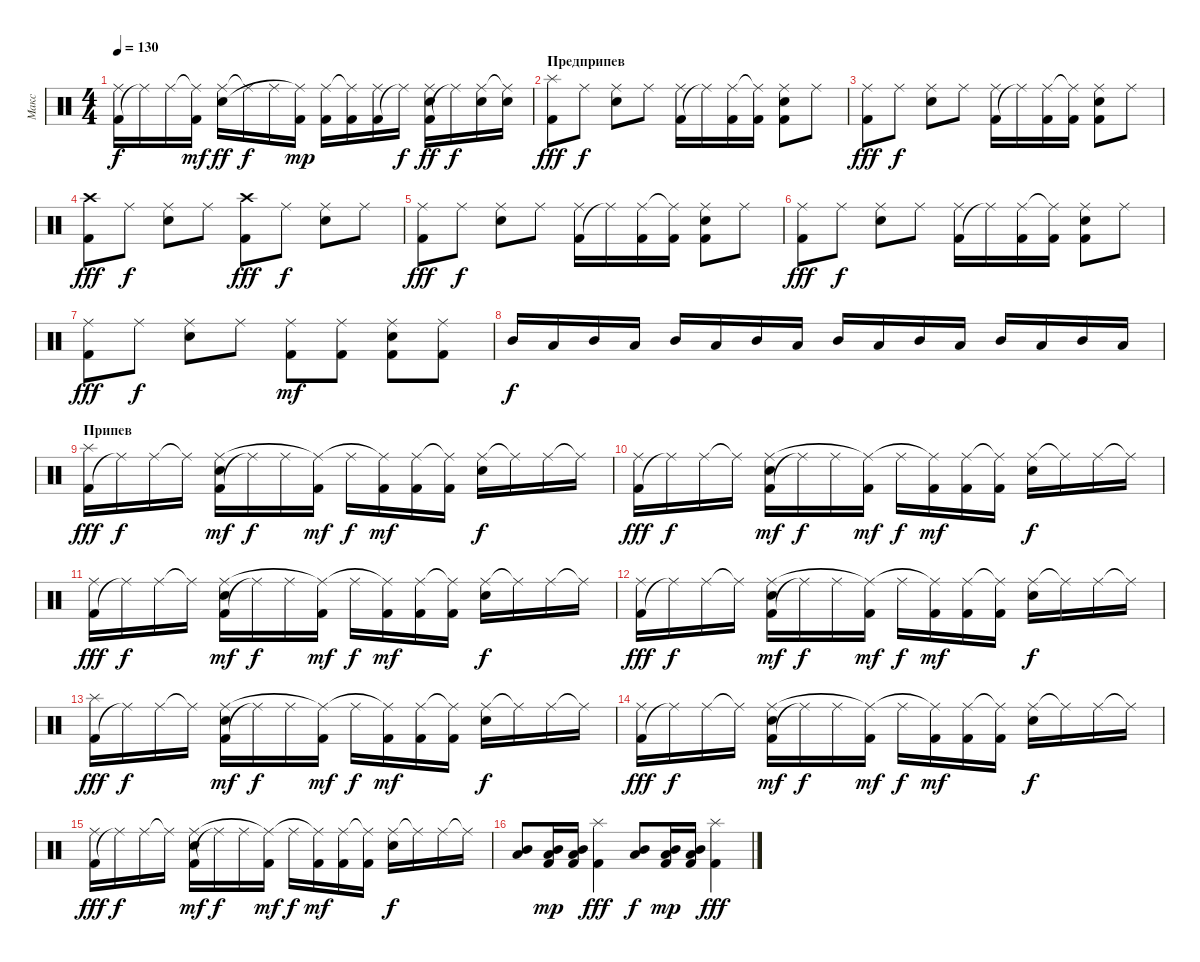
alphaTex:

\track ("Макс" "Макс") {instrument percussion}
\staff {score}
\articulation defaults
\ts (4 4)
\tempo 130
\clef neutral
\ks c
("Kick (hit) 2" "Ride (middle)").16{dy f} "Ride (middle)"{t}.16 "Ride (middle)".16 ("Ride (middle)"{t} "Kick (hit) 2").16{dy mf} ("Ride (middle)" "Electric Snare (hit)").16{dy ff} "Ride (middle)"{t}.16{dy f} "Ride (middle)".16 ("Kick (hit) 2" "Ride (middle)"{t}).16{dy mp} ("Kick (hit) 2" "Ride (middle)").16 ("Kick (hit) 2" "Ride (middle)"{t}).16 ("Kick (hit) 2" "Ride (middle)").16 "Ride (middle)"{t}.16{dy f} ("Kick (hit) 2" "Ride (middle)" "Electric Snare (hit)").16{dy ff} "Ride (middle)"{t}.16{dy f} ("Ride (middle)" "Electric Snare (hit)").16 ("Ride (middle)"{t} "Electric Snare (hit)").16 |
\section ("" "Предприпев")
("Kick (hit) 2" "Splash (hit)").8{dy fff} "Ride (middle)".8{dy f} ("Ride (middle)" "Electric Snare (hit)").8 "Ride (middle)".8 ("Kick (hit) 2" "Ride (middle)").16 "Ride (middle)"{t}.16 ("Kick (hit) 2" "Ride (middle)").16 ("Kick (hit) 2" "Ride (middle)"{t}).16 ("Kick (hit) 2" "Ride (middle)" "Electric Snare (hit)").8 "Ride (middle)".8 |
("Kick (hit) 2" "Ride (middle)").8{dy fff} "Ride (middle)".8{dy f} ("Ride (middle)" "Electric Snare (hit)").8 "Ride (middle)".8 ("Kick (hit) 2" "Ride (middle)").16 "Ride (middle)"{t}.16 ("Kick (hit) 2" "Ride (middle)").16 ("Kick (hit) 2" "Ride (middle)"{t}).16 ("Kick (hit) 2" "Ride (middle)" "Electric Snare (hit)").8 "Ride (middle)".8 |
("Kick (hit) 2" "Crash high (hit)").8{dy fff} "Ride (middle)".8{dy f} ("Ride (middle)" "Electric Snare (hit)").8 "Ride (middle)".8 ("Kick (hit) 2" "Crash high (hit)").8{dy fff} "Ride (middle)".8{dy f} ("Ride (middle)" "Electric Snare (hit)").8 "Ride (middle)".8 |
("Kick (hit) 2" "Ride (middle)").8{dy fff} "Ride (middle)".8{dy f} ("Ride (middle)" "Electric Snare (hit)").8 "Ride (middle)".8 ("Kick (hit) 2" "Ride (middle)").16 "Ride (middle)"{t}.16 ("Kick (hit) 2" "Ride (middle)").16 ("Kick (hit) 2" "Ride (middle)"{t}).16 ("Kick (hit) 2" "Ride (middle)" "Electric Snare (hit)").8 "Ride (middle)".8 |
("Kick (hit) 2" "Ride (middle)").8{dy fff} "Ride (middle)".8{dy f} ("Ride (middle)" "Electric Snare (hit)").8 "Ride (middle)".8 ("Kick (hit) 2" "Ride (middle)").16 "Ride (middle)"{t}.16 ("Kick (hit) 2" "Ride (middle)").16 ("Kick (hit) 2" "Ride (middle)"{t}).16 ("Kick (hit) 2" "Ride (middle)" "Electric Snare (hit)").8 "Ride (middle)".8 |
("Kick (hit) 2" "Ride (middle)").8{dy fff} "Ride (middle)".8{dy f} ("Ride (middle)" "Electric Snare (hit)").8 "Ride (middle)".8 ("Kick (hit) 2" "Ride (middle)").8{dy mf} ("Kick (hit) 2" "Ride (middle)").8 ("Kick (hit) 2" "Ride (middle)" "Electric Snare (hit)").8 ("Kick (hit) 2" "Ride (middle)").8 |
"Mid Tom (hit)".16{dy f} "Low Tom (hit)".16 "Mid Tom (hit)".16 "Low Tom (hit)".16 "Mid Tom (hit)".16 "Low Tom (hit)".16 "Mid Tom (hit)".16 "Low Tom (hit)".16 "Mid Tom (hit)".16 "Low Tom (hit)".16 "Mid Tom (hit)".16 "Low Tom (hit)".16 "Mid Tom (hit)".16 "Low Tom (hit)".16 "Mid Tom (hit)".16 "Low Tom (hit)".16 |
\section ("" "Припев")
("Kick (hit) 2" "Splash (hit)").16{dy fff} "Ride (middle)"{t}.16{dy f} "Ride (middle)".16 "Ride (middle)"{t}.16 ("Kick (hit) 2" "Ride (middle)" "Electric Snare (hit)").16{dy mf} "Ride (middle)"{t}.16{dy f} "Ride (middle)".16 ("Kick (hit) 2" "Ride (middle)"{t}).16{dy mf} "Ride (middle)".16{dy f} ("Kick (hit) 2" "Ride (middle)"{t}).16{dy mf} ("Kick (hit) 2" "Ride (middle)").16 ("Kick (hit) 2" "Ride (middle)"{t}).16 ("Ride (middle)" "Electric Snare (hit)").16{dy f} "Ride (middle)"{t}.16 "Ride (middle)".16 "Ride (middle)"{t}.16 |
("Kick (hit) 2" "Ride (middle)").16{dy fff} "Ride (middle)"{t}.16{dy f} "Ride (middle)".16 "Ride (middle)"{t}.16 ("Kick (hit) 2" "Ride (middle)" "Electric Snare (hit)").16{dy mf} "Ride (middle)"{t}.16{dy f} "Ride (middle)".16 ("Kick (hit) 2" "Ride (middle)"{t}).16{dy mf} "Ride (middle)".16{dy f} ("Kick (hit) 2" "Ride (middle)"{t}).16{dy mf} ("Kick (hit) 2" "Ride (middle)").16 ("Kick (hit) 2" "Ride (middle)"{t}).16 ("Ride (middle)" "Electric Snare (hit)").16{dy f} "Ride (middle)"{t}.16 "Ride (middle)".16 "Ride (middle)"{t}.16 |
("Kick (hit) 2" "Ride (middle)").16{dy fff} "Ride (middle)"{t}.16{dy f} "Ride (middle)".16 "Ride (middle)"{t}.16 ("Kick (hit) 2" "Ride (middle)" "Electric Snare (hit)").16{dy mf} "Ride (middle)"{t}.16{dy f} "Ride (middle)".16 ("Kick (hit) 2" "Ride (middle)"{t}).16{dy mf} "Ride (middle)".16{dy f} ("Kick (hit) 2" "Ride (middle)"{t}).16{dy mf} ("Kick (hit) 2" "Ride (middle)").16 ("Kick (hit) 2" "Ride (middle)"{t}).16 ("Ride (middle)" "Electric Snare (hit)").16{dy f} "Ride (middle)"{t}.16 "Ride (middle)".16 "Ride (middle)"{t}.16 |
("Kick (hit) 2" "Ride (middle)").16{dy fff} "Ride (middle)"{t}.16{dy f} "Ride (middle)".16 "Ride (middle)"{t}.16 ("Kick (hit) 2" "Ride (middle)" "Electric Snare (hit)").16{dy mf} "Ride (middle)"{t}.16{dy f} "Ride (middle)".16 ("Kick (hit) 2" "Ride (middle)"{t}).16{dy mf} "Ride (middle)".16{dy f} ("Kick (hit) 2" "Ride (middle)"{t}).16{dy mf} ("Kick (hit) 2" "Ride (middle)").16 ("Kick (hit) 2" "Ride (middle)"{t}).16 ("Ride (middle)" "Electric Snare (hit)").16{dy f} "Ride (middle)"{t}.16 "Ride (middle)".16 "Ride (middle)"{t}.16 |
("Kick (hit) 2" "Splash (hit)").16{dy fff} "Ride (middle)"{t}.16{dy f} "Ride (middle)".16 "Ride (middle)"{t}.16 ("Kick (hit) 2" "Ride (middle)" "Electric Snare (hit)").16{dy mf} "Ride (middle)"{t}.16{dy f} "Ride (middle)".16 ("Kick (hit) 2" "Ride (middle)"{t}).16{dy mf} "Ride (middle)".16{dy f} ("Kick (hit) 2" "Ride (middle)"{t}).16{dy mf} ("Kick (hit) 2" "Ride (middle)").16 ("Kick (hit) 2" "Ride (middle)"{t}).16 ("Ride (middle)" "Electric Snare (hit)").16{dy f} "Ride (middle)"{t}.16 "Ride (middle)".16 "Ride (middle)"{t}.16 |
("Kick (hit) 2" "Ride (middle)").16{dy fff} "Ride (middle)"{t}.16{dy f} "Ride (middle)".16 "Ride (middle)"{t}.16 ("Kick (hit) 2" "Ride (middle)" "Electric Snare (hit)").16{dy mf} "Ride (middle)"{t}.16{dy f} "Ride (middle)".16 ("Kick (hit) 2" "Ride (middle)"{t}).16{dy mf} "Ride (middle)".16{dy f} ("Kick (hit) 2" "Ride (middle)"{t}).16{dy mf} ("Kick (hit) 2" "Ride (middle)").16 ("Kick (hit) 2" "Ride (middle)"{t}).16 ("Ride (middle)" "Electric Snare (hit)").16{dy f} "Ride (middle)"{t}.16 "Ride (middle)".16 "Ride (middle)"{t}.16 |
("Kick (hit) 2" "Ride (middle)").16{dy fff} "Ride (middle)"{t}.16{dy f} "Ride (middle)".16 "Ride (middle)"{t}.16 ("Kick (hit) 2" "Ride (middle)" "Electric Snare (hit)").16{dy mf} "Ride (middle)"{t}.16{dy f} "Ride (middle)".16 ("Kick (hit) 2" "Ride (middle)"{t}).16{dy mf} "Ride (middle)".16{dy f} ("Kick (hit) 2" "Ride (middle)"{t}).16{dy mf} ("Kick (hit) 2" "Ride (middle)").16 ("Kick (hit) 2" "Ride (middle)"{t}).16 ("Ride (middle)" "Electric Snare (hit)").16{dy f} "Ride (middle)"{t}.16 "Ride (middle)".16 "Ride (middle)"{t}.16 |
("Low Tom (hit)" "Mid Tom (hit)").8 ("Kick (hit) 2" "Mid Tom (hit)" "Low Tom (hit)").16{dy mp} ("Kick (hit) 2" "Mid Tom (hit)" "Low Tom (hit)").16 ("Kick (hit) 2" "Splash (hit)").4{dy fff} ("Low Tom (hit)" "Mid Tom (hit)").8{dy f} ("Kick (hit) 2" "Mid Tom (hit)" "Low Tom (hit)").16{dy mp} ("Kick (hit) 2" "Low Tom (hit)" "Mid Tom (hit)").16 ("Kick (hit) 2" "Splash (hit)").4{dy fff}
